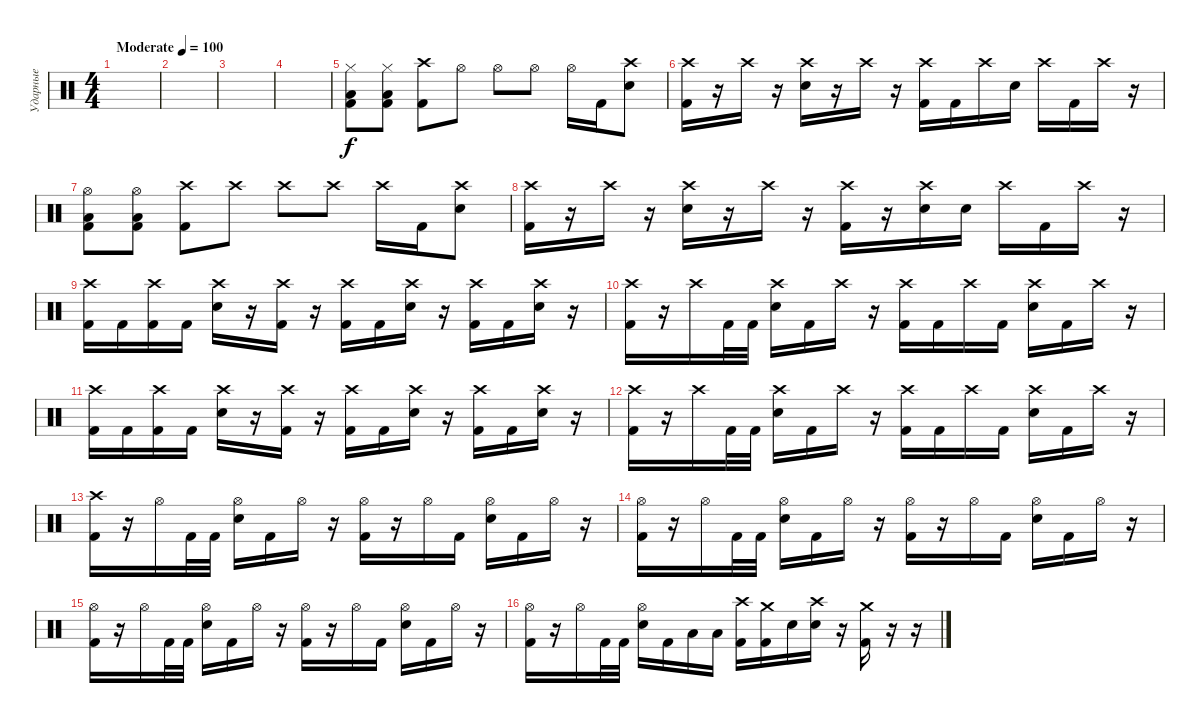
\track ("Ударные" "Ударные") {instrument percussion}
\staff {score}
\articulation defaults
\ts (4 4)
\tempo (100 "Moderate")
\clef neutral
\ks c
|
|
|
|
("Hi-Hat (closed)" "Low Floor Tom (hit)" "Kick (hit) 2").8 ("Hi-Hat (closed)" "Low Floor Tom (hit)" "Kick (hit) 2").8 ("Crash high (hit)" "Kick (hit) 2").8 "Hi-Hat (open)".8 "Hi-Hat (open)".8 "Hi-Hat (open)".8 "Hi-Hat (open)".16 "Kick (hit) 2".16 ("Crash high (hit)" "Electric Snare (hit)").8 |
("Crash high (hit)" "Kick (hit) 2").16 r.16 "Crash high (hit)".16 r.16 ("Crash high (hit)" "Electric Snare (hit)").16 r.16 "Crash high (hit)".16 r.16 ("Crash high (hit)" "Kick (hit) 2").16 "Kick (hit) 2".16 "Crash high (hit)".16 "Electric Snare (hit)".16 "Crash high (hit)".16 "Kick (hit) 2".16 "Crash high (hit)".16 r.16 |
("Hi-Hat (open)" "Low Floor Tom (hit)" "Kick (hit) 2").8 ("Hi-Hat (open)" "Low Floor Tom (hit)" "Kick (hit) 2").8 ("Crash high (hit)" "Kick (hit) 2").8 "Crash high (hit)".8 "Crash high (hit)".8 "Crash high (hit)".8 "Crash high (hit)".16 "Kick (hit) 2".16 ("Crash high (hit)" "Electric Snare (hit)").8 |
("Crash high (hit)" "Kick (hit) 2").16 r.16 "Crash high (hit)".16 r.16 ("Crash high (hit)" "Electric Snare (hit)").16 r.16 "Crash high (hit)".16 r.16 ("Crash high (hit)" "Kick (hit) 2").16 r.16 ("Crash high (hit)" "Electric Snare (hit)").16 "Electric Snare (hit)".16 "Crash high (hit)".16 "Kick (hit) 2".16 "Crash high (hit)".16 r.16 |
("Crash high (hit)" "Kick (hit) 2").16 "Kick (hit) 2".16 ("Crash high (hit)" "Kick (hit) 2").16 "Kick (hit) 2".16 ("Crash high (hit)" "Electric Snare (hit)").16 r.16 ("Crash high (hit)" "Kick (hit) 2").16 r.16 ("Crash high (hit)" "Kick (hit) 2").16 "Kick (hit) 2".16 ("Crash high (hit)" "Electric Snare (hit)").16 r.16 ("Crash high (hit)" "Kick (hit) 2").16 "Kick (hit) 2".16 ("Crash high (hit)" "Electric Snare (hit)").16 r.16 |
("Crash high (hit)" "Kick (hit) 2").16 r.16 "Crash high (hit)".16 "Kick (hit) 2".32 "Kick (hit) 2".32 ("Crash high (hit)" "Electric Snare (hit)").16 "Kick (hit) 2".16 "Crash high (hit)".16 r.16 ("Crash high (hit)" "Kick (hit) 2").16 "Kick (hit) 2".16 "Crash high (hit)".16 "Kick (hit) 2".16 ("Crash high (hit)" "Electric Snare (hit)").16 "Kick (hit) 2".16 "Crash high (hit)".16 r.16 |
("Crash high (hit)" "Kick (hit) 2").16 "Kick (hit) 2".16 ("Crash high (hit)" "Kick (hit) 2").16 "Kick (hit) 2".16 ("Crash high (hit)" "Electric Snare (hit)").16 r.16 ("Crash high (hit)" "Kick (hit) 2").16 r.16 ("Crash high (hit)" "Kick (hit) 2").16 "Kick (hit) 2".16 ("Crash high (hit)" "Electric Snare (hit)").16 r.16 ("Crash high (hit)" "Kick (hit) 2").16 "Kick (hit) 2".16 ("Crash high (hit)" "Electric Snare (hit)").16 r.16 |
("Crash high (hit)" "Kick (hit) 2").16 r.16 "Crash high (hit)".16 "Kick (hit) 2".32 "Kick (hit) 2".32 ("Crash high (hit)" "Electric Snare (hit)").16 "Kick (hit) 2".16 "Crash high (hit)".16 r.16 ("Crash high (hit)" "Kick (hit) 2").16 "Kick (hit) 2".16 "Crash high (hit)".16 "Kick (hit) 2".16 ("Crash high (hit)" "Electric Snare (hit)").16 "Kick (hit) 2".16 "Crash high (hit)".16 r.16 |
("Crash high (hit)" "Kick (hit) 2").16 r.16 "Hi-Hat (open)".16 "Kick (hit) 2".32 "Kick (hit) 2".32 ("Hi-Hat (open)" "Electric Snare (hit)").16 "Kick (hit) 2".16 "Hi-Hat (open)".16 r.16 ("Hi-Hat (open)" "Kick (hit) 2").16 r.16 "Hi-Hat (open)".16 "Kick (hit) 2".16 ("Hi-Hat (open)" "Electric Snare (hit)").16 "Kick (hit) 2".16 "Hi-Hat (open)".16 r.16 |
("Hi-Hat (open)" "Kick (hit) 2").16 r.16 "Hi-Hat (open)".16 "Kick (hit) 2".32 "Kick (hit) 2".32 ("Hi-Hat (open)" "Electric Snare (hit)").16 "Kick (hit) 2".16 "Hi-Hat (open)".16 r.16 ("Hi-Hat (open)" "Kick (hit) 2").16 r.16 "Hi-Hat (open)".16 "Kick (hit) 2".16 ("Hi-Hat (open)" "Electric Snare (hit)").16 "Kick (hit) 2".16 "Hi-Hat (open)".16 r.16 |
("Hi-Hat (open)" "Kick (hit) 2").16 r.16 "Hi-Hat (open)".16 "Kick (hit) 2".32 "Kick (hit) 2".32 ("Hi-Hat (open)" "Electric Snare (hit)").16 "Kick (hit) 2".16 "Hi-Hat (open)".16 r.16 ("Hi-Hat (open)" "Kick (hit) 2").16 r.16 "Hi-Hat (open)".16 "Kick (hit) 2".16 ("Hi-Hat (open)" "Electric Snare (hit)").16 "Kick (hit) 2".16 "Hi-Hat (open)".16 r.16 |
("Hi-Hat (open)" "Kick (hit) 2").16 r.16 "Hi-Hat (open)".16 "Kick (hit) 2".32 "Kick (hit) 2".32 ("Hi-Hat (open)" "Electric Snare (hit)").16 "Kick (hit) 2".16 "Low Floor Tom (hit)".16 "Low Floor Tom (hit)".16 ("Crash high (hit)" "Kick (hit) 2").16 ("Crash medium (hit)" "Kick (hit) 2").16 "Electric Snare (hit)".16 ("Crash high (hit)" "Electric Snare (hit)").16 r.16 ("Crash medium (hit)" "Kick (hit) 2").16 r.16 r.16
